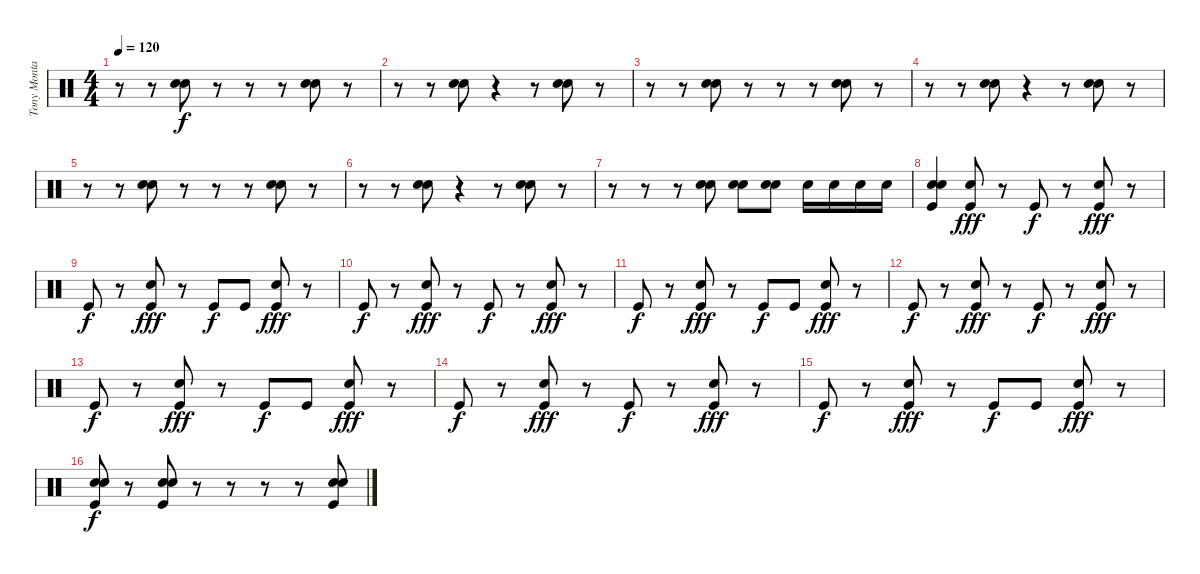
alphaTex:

\track ("Tony Montana" "Tony Monta") {instrument percussion}
\staff {score}
\articulation defaults
\ts (4 4)
\tempo 120
\clef neutral
\ks c
r.8{dy f} r.8 ("Snare (hit) 2" "Snare (hit) 2").8 r.8 r.8 r.8 ("Snare (hit) 2" "Snare (hit) 2").8 r.8 |
r.8 r.8 ("Snare (hit) 2" "Snare (hit) 2").8 r.4 r.8 ("Snare (hit) 2" "Snare (hit) 2").8 r.8 |
r.8 r.8 ("Snare (hit) 2" "Snare (hit) 2").8 r.8 r.8 r.8 ("Snare (hit) 2" "Snare (hit) 2").8 r.8 |
r.8 r.8 ("Snare (hit) 2" "Snare (hit) 2").8 r.4 r.8 ("Snare (hit) 2" "Snare (hit) 2").8 r.8 |
r.8 r.8 ("Snare (hit) 2" "Snare (hit) 2").8 r.8 r.8 r.8 ("Snare (hit) 2" "Snare (hit) 2").8 r.8 |
r.8 r.8 ("Snare (hit) 2" "Snare (hit) 2").8 r.4 r.8 ("Snare (hit) 2" "Snare (hit) 2").8 r.8 |
r.8 r.8 r.8 ("Snare (hit) 2" "Snare (hit) 2").8 ("Snare (hit) 2" "Snare (hit) 2").8 ("Snare (hit) 2" "Snare (hit) 2").8 "Snare (hit) 2".16 "Snare (hit) 2".16 "Snare (hit) 2".16 "Snare (hit) 2".16 |
("Kick (hit)" "Snare (hit) 2" "Snare (hit) 2").4 ("Kick (hit)" "Snare (hit) 2").8{dy fff} r.8 "Kick (hit)".8{dy f} r.8 ("Kick (hit)" "Snare (hit) 2").8{dy fff} r.8 |
"Kick (hit)".8{dy f} r.8 ("Kick (hit)" "Snare (hit) 2").8{dy fff} r.8 "Kick (hit)".8{dy f} "Kick (hit)".8 ("Kick (hit)" "Snare (hit) 2").8{dy fff} r.8 |
"Kick (hit)".8{dy f} r.8 ("Kick (hit)" "Snare (hit) 2").8{dy fff} r.8 "Kick (hit)".8{dy f} r.8 ("Kick (hit)" "Snare (hit) 2").8{dy fff} r.8 |
"Kick (hit)".8{dy f} r.8 ("Kick (hit)" "Snare (hit) 2").8{dy fff} r.8 "Kick (hit)".8{dy f} "Kick (hit)".8 ("Kick (hit)" "Snare (hit) 2").8{dy fff} r.8 |
"Kick (hit)".8{dy f} r.8 ("Kick (hit)" "Snare (hit) 2").8{dy fff} r.8 "Kick (hit)".8{dy f} r.8 ("Kick (hit)" "Snare (hit) 2").8{dy fff} r.8 |
"Kick (hit)".8{dy f} r.8 ("Kick (hit)" "Snare (hit) 2").8{dy fff} r.8 "Kick (hit)".8{dy f} "Kick (hit)".8 ("Kick (hit)" "Snare (hit) 2").8{dy fff} r.8 |
"Kick (hit)".8{dy f} r.8 ("Kick (hit)" "Snare (hit) 2").8{dy fff} r.8 "Kick (hit)".8{dy f} r.8 ("Kick (hit)" "Snare (hit) 2").8{dy fff} r.8 |
"Kick (hit)".8{dy f} r.8 ("Kick (hit)" "Snare (hit) 2").8{dy fff} r.8 "Kick (hit)".8{dy f} "Kick (hit)".8 ("Kick (hit)" "Snare (hit) 2").8{dy fff} r.8 |
("Kick (hit)" "Snare (hit) 2" "Snare (hit) 2").8{dy f} r.8 ("Kick (hit)" "Snare (hit) 2" "Snare (hit) 2").8 r.8 r.8 r.8 r.8 ("Kick (hit)" "Snare (hit) 2" "Snare (hit) 2").8
